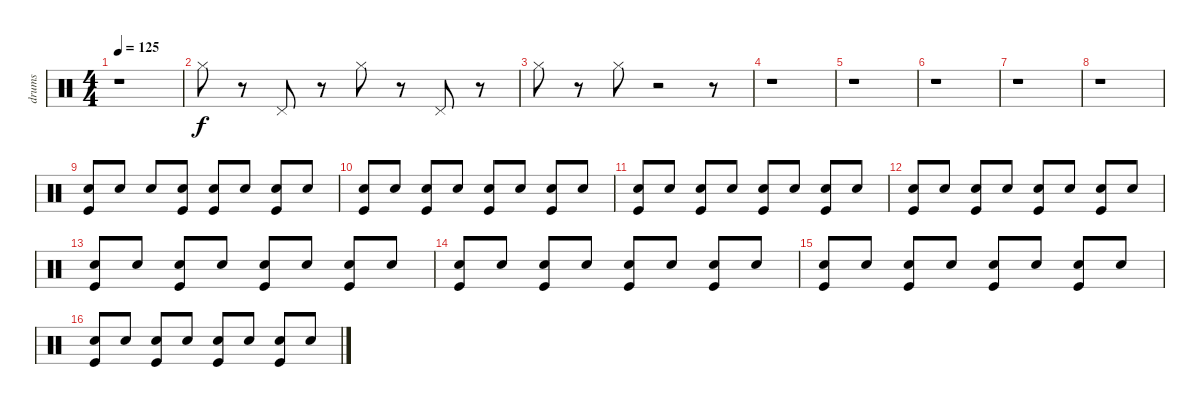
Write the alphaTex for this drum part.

\track ("drums" "drums") {instrument percussion}
\staff {score}
\articulation defaults
\ts (4 4)
\tempo 125
\clef neutral
\ks c
r.1{dy f} |
"Hi-Hat (closed)".8 r.8 "Pedal Hi-Hat (hit)".8 r.8 "Hi-Hat (closed)".8 r.8 "Pedal Hi-Hat (hit)".8 r.8 |
"Hi-Hat (closed)".8 r.8 "Hi-Hat (closed)".8 r.2 r.8 |
r.1 |
r.1 |
r.1 |
r.1 |
r.1 |
("Snare (hit) 2" "Kick (hit)").8 "Snare (hit) 2".8 "Hand Clap (hit)".8 ("Snare (hit) 2" "Kick (hit)").8 ("Snare (hit) 2" "Kick (hit)").8 "Snare (hit) 2".8 ("Hand Clap (hit)" "Kick (hit)").8 "Snare (hit) 2".8 |
("Kick (hit)" "Snare (hit) 2").8 "Snare (hit) 2".8 ("Kick (hit)" "Hand Clap (hit)").8 "Snare (hit) 2".8 ("Kick (hit)" "Snare (hit) 2").8 "Snare (hit) 2".8 ("Kick (hit)" "Hand Clap (hit)").8 "Snare (hit) 2".8 |
("Snare (hit) 2" "Kick (hit)").8 "Snare (hit) 2".8 ("Hand Clap (hit)" "Kick (hit)").8 "Snare (hit) 2".8 ("Snare (hit) 2" "Kick (hit)").8 "Snare (hit) 2".8 ("Hand Clap (hit)" "Kick (hit)").8 "Snare (hit) 2".8 |
("Snare (hit) 2" "Kick (hit)").8 "Snare (hit) 2".8 ("Hand Clap (hit)" "Kick (hit)").8 "Snare (hit) 2".8 ("Snare (hit) 2" "Kick (hit)").8 "Snare (hit) 2".8 ("Hand Clap (hit)" "Kick (hit)").8 "Snare (hit) 2".8 |
("Snare (hit) 2" "Kick (hit)").8 "Snare (hit) 2".8 ("Hand Clap (hit)" "Kick (hit)").8 "Snare (hit) 2".8 ("Snare (hit) 2" "Kick (hit)").8 "Snare (hit) 2".8 ("Hand Clap (hit)" "Kick (hit)").8 "Snare (hit) 2".8 |
("Snare (hit) 2" "Kick (hit)").8 "Snare (hit) 2".8 ("Hand Clap (hit)" "Kick (hit)").8 "Snare (hit) 2".8 ("Snare (hit) 2" "Kick (hit)").8 "Snare (hit) 2".8 ("Hand Clap (hit)" "Kick (hit)").8 "Snare (hit) 2".8 |
("Snare (hit) 2" "Kick (hit)").8 "Snare (hit) 2".8 ("Hand Clap (hit)" "Kick (hit)").8 "Snare (hit) 2".8 ("Snare (hit) 2" "Kick (hit)").8 "Snare (hit) 2".8 ("Hand Clap (hit)" "Kick (hit)").8 "Snare (hit) 2".8 |
("Snare (hit) 2" "Kick (hit)").8 "Snare (hit) 2".8 ("Hand Clap (hit)" "Kick (hit)").8 "Snare (hit) 2".8 ("Snare (hit) 2" "Kick (hit)").8 "Snare (hit) 2".8 ("Hand Clap (hit)" "Kick (hit)").8 "Snare (hit) 2".8
